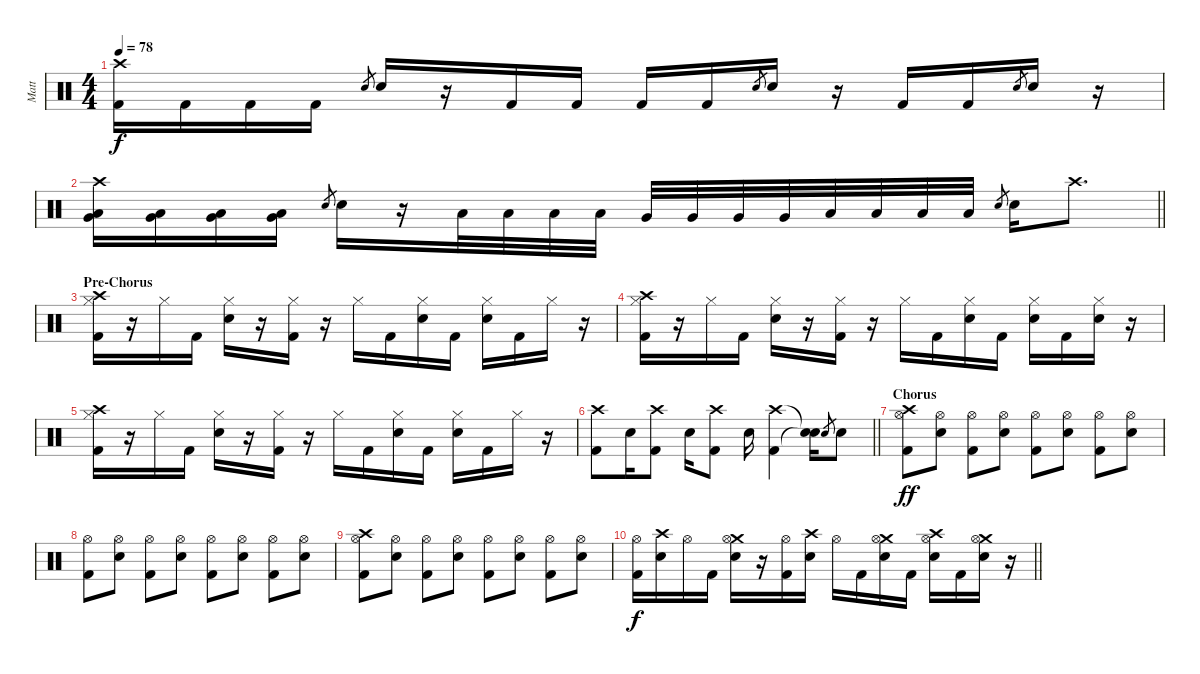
\track ("Matt" "Matt") {instrument percussion}
\staff {score}
\articulation defaults
\ts (4 4)
\tempo 78
\clef neutral
\ks c
("Crash high (hit)" "Kick (hit) 2").16{dy f} "Kick (hit) 2".16 "Kick (hit) 2".16 "Kick (hit) 2".16 "Snare (hit) 2".8{gr} "Snare (hit) 2".16 r.16 "Kick (hit) 2".16 "Kick (hit) 2".16 "Kick (hit) 2".16 "Kick (hit) 2".16 "Snare (hit) 2".8{gr} "Snare (hit) 2".16 r.16 "Kick (hit) 2".16 "Kick (hit) 2".16 "Snare (hit) 2".8{gr} "Snare (hit) 2".16 r.16 |
\barLineRight lightlight
("Crash high (hit)" "Very Low Tom (hit)" "Low Floor Tom (hit)").16 ("Very Low Tom (hit)" "Low Floor Tom (hit)").16 ("Very Low Tom (hit)" "Low Floor Tom (hit)").16 ("Very Low Tom (hit)" "Low Floor Tom (hit)").16 "Snare (hit) 2".8{gr} "Snare (hit) 2".16 r.16 "Low Tom (hit)".32 "Low Tom (hit)".32 "Low Tom (hit)".32 "Low Tom (hit)".32 "Very Low Tom (hit)".32 "Very Low Tom (hit)".32 "Very Low Tom (hit)".32 "Very Low Tom (hit)".32 "Low Floor Tom (hit)".32 "Low Floor Tom (hit)".32 "Low Floor Tom (hit)".32 "Low Floor Tom (hit)".32 "Snare (hit) 2".8{gr} "Snare (hit) 2".16 "Crash high (hit)".8{d} |
\section ("" "Pre-Chorus")
("Hi-Hat (closed)" "Kick (hit) 2" "Crash high (hit)").16 r.16 "Hi-Hat (closed)".16 "Kick (hit) 2".16 ("Hi-Hat (closed)" "Snare (hit) 2").16 r.16 ("Hi-Hat (closed)" "Kick (hit) 2").16 r.16 "Hi-Hat (closed)".16 "Kick (hit) 2".16 ("Hi-Hat (closed)" "Snare (hit) 2").16 "Kick (hit) 2".16 ("Hi-Hat (closed)" "Snare (hit) 2").16 "Kick (hit) 2".16 "Hi-Hat (closed)".16 r.16 |
("Hi-Hat (closed)" "Kick (hit) 2" "Crash high (hit)").16 r.16 "Hi-Hat (closed)".16 "Kick (hit) 2".16 ("Hi-Hat (closed)" "Snare (hit) 2").16 r.16 ("Hi-Hat (closed)" "Kick (hit) 2").16 r.16 "Hi-Hat (closed)".16 "Kick (hit) 2".16 ("Hi-Hat (closed)" "Snare (hit) 2").16 "Kick (hit) 2".16 ("Hi-Hat (closed)" "Snare (hit) 2").16 "Kick (hit) 2".16 ("Hi-Hat (closed)" "Snare (hit) 2").16 r.16 |
("Hi-Hat (closed)" "Kick (hit) 2" "Crash high (hit)").16 r.16 "Hi-Hat (closed)".16 "Kick (hit) 2".16 ("Hi-Hat (closed)" "Snare (hit) 2").16 r.16 ("Hi-Hat (closed)" "Kick (hit) 2").16 r.16 "Hi-Hat (closed)".16 "Kick (hit) 2".16 ("Hi-Hat (closed)" "Snare (hit) 2").16 "Kick (hit) 2".16 ("Hi-Hat (closed)" "Snare (hit) 2").16 "Kick (hit) 2".16 "Hi-Hat (closed)".16 r.16 |
\barLineRight lightlight
("Kick (hit) 2" "Crash high (hit)").8 "Snare (hit) 2".16 ("Kick (hit) 2" "Crash high (hit)").8 "Snare (hit) 2".16 ("Kick (hit) 2" "Crash high (hit)").8 "Snare (hit) 2".16 ("Kick (hit) 2" "Crash high (hit)").4 ("Snare (hit)"{t} "Snare (hit)"{t}).16 "Snare (hit) 2".8{gr} "Snare (hit) 2".8 |
\section ("" "Chorus")
("Hi-Hat (open)" "Kick (hit) 2" "Crash high (hit)").8{dy ff} ("Hi-Hat (open)" "Snare (hit) 2").8 ("Hi-Hat (open)" "Kick (hit) 2").8 ("Hi-Hat (open)" "Snare (hit) 2").8 ("Hi-Hat (open)" "Kick (hit) 2").8 ("Hi-Hat (open)" "Snare (hit) 2").8 ("Hi-Hat (open)" "Kick (hit) 2").8 ("Hi-Hat (open)" "Snare (hit) 2").8 |
("Hi-Hat (open)" "Kick (hit) 2").8 ("Hi-Hat (open)" "Snare (hit) 2").8 ("Hi-Hat (open)" "Kick (hit) 2").8 ("Hi-Hat (open)" "Snare (hit) 2").8 ("Hi-Hat (open)" "Kick (hit) 2").8 ("Hi-Hat (open)" "Snare (hit) 2").8 ("Hi-Hat (open)" "Kick (hit) 2").8 ("Hi-Hat (open)" "Snare (hit) 2").8 |
("Hi-Hat (open)" "Kick (hit) 2" "Crash high (hit)").8 ("Hi-Hat (open)" "Snare (hit) 2").8 ("Hi-Hat (open)" "Kick (hit) 2").8 ("Hi-Hat (open)" "Snare (hit) 2").8 ("Hi-Hat (open)" "Kick (hit) 2").8 ("Hi-Hat (open)" "Snare (hit) 2").8 ("Hi-Hat (open)" "Kick (hit) 2").8 ("Hi-Hat (open)" "Snare (hit) 2").8 |
\barLineRight lightlight
("Kick (hit) 2" "Hi-Hat (open)").16{dy f} ("Crash high (hit)" "Snare (hit) 2").16 "Hi-Hat (open)".16 "Kick (hit) 2".16 ("Crash medium (hit)" "Snare (hit) 2" "Hi-Hat (open)").16 r.16 ("Kick (hit) 2" "Hi-Hat (open)").16 ("Crash high (hit)" "Snare (hit) 2").16 "Hi-Hat (open)".16 "Kick (hit) 2".16 ("Crash medium (hit)" "Snare (hit) 2" "Hi-Hat (open)").16 "Kick (hit) 2".16 ("Crash high (hit)" "Snare (hit) 2" "Hi-Hat (open)").16 "Kick (hit) 2".16 ("Crash medium (hit)" "Snare (hit) 2" "Hi-Hat (open)").16 r.16
